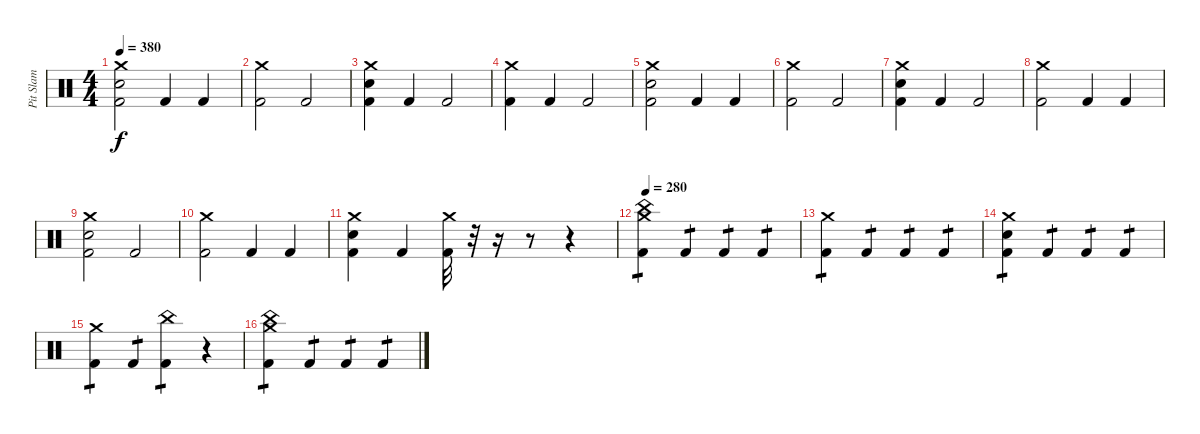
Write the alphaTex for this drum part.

\track ("Pit Slam" "Pit Slam") {instrument percussion}
\staff {score}
\articulation defaults
\ts (4 4)
\tempo 380
\clef neutral
\ks c
("Crash medium (hit)" "Electric Snare (hit)" "Kick (hit) 2").2{dy f} "Kick (hit) 2".4 "Kick (hit) 2".4 |
("Crash medium (hit)" "Kick (hit) 2").2 "Kick (hit) 2".2 |
("Crash medium (hit)" "Electric Snare (hit)" "Kick (hit) 2").4 "Kick (hit) 2".4 "Kick (hit) 2".2 |
("Crash medium (hit)" "Kick (hit) 2").4 "Kick (hit) 2".4 "Kick (hit) 2".2 |
("Crash medium (hit)" "Electric Snare (hit)" "Kick (hit) 2").2 "Kick (hit) 2".4 "Kick (hit) 2".4 |
("Crash medium (hit)" "Kick (hit) 2").2 "Kick (hit) 2".2 |
("Crash medium (hit)" "Electric Snare (hit)" "Kick (hit) 2").4 "Kick (hit) 2".4 "Kick (hit) 2".2 |
("Crash medium (hit)" "Kick (hit) 2").2 "Kick (hit) 2".4 "Kick (hit) 2".4 |
("Crash medium (hit)" "Electric Snare (hit)" "Kick (hit) 2").2 "Kick (hit) 2".2 |
("Crash medium (hit)" "Kick (hit) 2").2 "Kick (hit) 2".4 "Kick (hit) 2".4 |
("Crash medium (hit)" "Electric Snare (hit)" "Kick (hit) 2").4 "Kick (hit) 2".4 ("Crash medium (hit)" "Kick (hit) 2").32 r.32 r.16 r.8 r.4 |
\tempo 280
("Crash medium (hit)" "China (hit)" "Kick (hit) 2").4{tp 1} "Kick (hit) 2".4{tp 1} "Kick (hit) 2".4{tp 1} "Kick (hit) 2".4{tp 1} |
("Crash medium (hit)" "Kick (hit) 2").4{tp 1} "Kick (hit) 2".4{tp 1} "Kick (hit) 2".4{tp 1} "Kick (hit) 2".4{tp 1} |
("Crash medium (hit)" "Electric Snare (hit)" "Kick (hit) 2").4{tp 1} "Kick (hit) 2".4{tp 1} "Kick (hit) 2".4{tp 1} "Kick (hit) 2".4{tp 1} |
("Crash medium (hit)" "Kick (hit) 2").4{tp 1} "Kick (hit) 2".4{tp 1} ("China (hit)" "Kick (hit) 2").4{tp 1} r.4 |
("Crash medium (hit)" "China (hit)" "Kick (hit) 2").4{tp 1} "Kick (hit) 2".4{tp 1} "Kick (hit) 2".4{tp 1} "Kick (hit) 2".4{tp 1}
